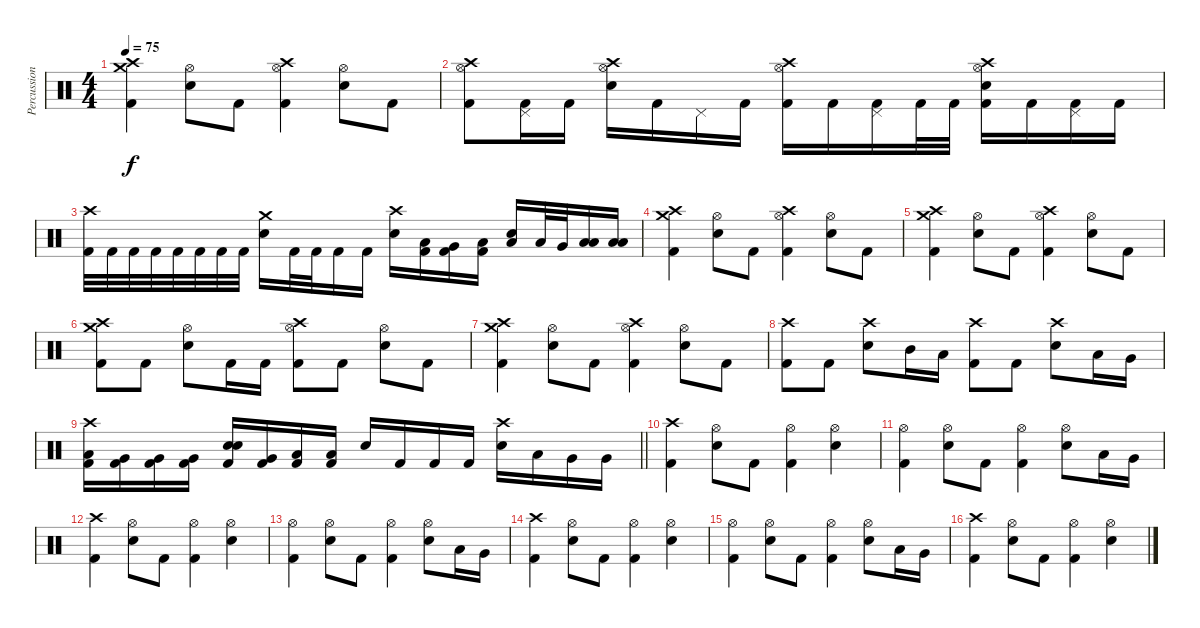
\track ("Percussions" "Percussion") {instrument percussion}
\staff {score}
\articulation defaults
\ts (4 4)
\tempo 75
\clef neutral
\ks c
("Crash medium (hit)" "Crash high (hit)" "Kick (hit) 2").4{dy f} ("Hi-Hat (open)" "Electric Snare (hit)").8 "Kick (hit) 2".8 ("Crash high (hit)" "Hi-Hat (open)" "Kick (hit) 2").4 ("Hi-Hat (open)" "Electric Snare (hit)").8 "Kick (hit) 2".8 |
("Crash high (hit)" "Hi-Hat (open)" "Kick (hit) 2").8 ("Pedal Hi-Hat (hit)" "Kick (hit) 2").16 "Kick (hit) 2".16 ("Crash high (hit)" "Hi-Hat (open)" "Electric Snare (hit)").16 "Kick (hit) 2".16 "Pedal Hi-Hat (hit)".16 "Kick (hit) 2".16 ("Crash high (hit)" "Hi-Hat (open)" "Kick (hit) 2").16 "Kick (hit) 2".16 ("Pedal Hi-Hat (hit)" "Kick (hit) 2").16 "Kick (hit) 2".32 "Kick (hit) 2".32 ("Crash high (hit)" "Hi-Hat (open)" "Electric Snare (hit)" "Kick (hit) 2").16 "Kick (hit) 2".16 ("Pedal Hi-Hat (hit)" "Kick (hit) 2").16 "Kick (hit) 2".16 |
("Crash high (hit)" "Kick (hit) 2").32 "Kick (hit) 2".32 "Kick (hit) 2".32 "Kick (hit) 2".32 "Kick (hit) 2".32 "Kick (hit) 2".32 "Kick (hit) 2".32 "Kick (hit) 2".32 ("Crash medium (hit)" "Electric Snare (hit)").16 "Kick (hit) 2".32 "Kick (hit) 2".32 "Kick (hit) 2".16 "Kick (hit) 2".16 ("Crash high (hit)" "Electric Snare (hit)").16 ("Low Tom (hit)" "Kick (hit) 2").16 ("Very Low Tom (hit)" "Kick (hit) 2").16 ("Low Floor Tom (hit)" "Kick (hit) 2").16 ("Electric Snare (hit)" "Low Tom (hit)").16 "Low Tom (hit)".32 "Very Low Tom (hit)".32 ("Low Floor Tom (hit)" "Low Floor Tom (hit)").16 ("Low Floor Tom (hit)" "Low Floor Tom (hit)").16 |
("Crash medium (hit)" "Crash high (hit)" "Kick (hit) 2").4 ("Hi-Hat (open)" "Electric Snare (hit)").8 "Kick (hit) 2".8 ("Crash high (hit)" "Hi-Hat (open)" "Kick (hit) 2").4 ("Hi-Hat (open)" "Electric Snare (hit)").8 "Kick (hit) 2".8 |
("Crash medium (hit)" "Crash high (hit)" "Kick (hit) 2").4 ("Hi-Hat (open)" "Electric Snare (hit)").8 "Kick (hit) 2".8 ("Crash high (hit)" "Hi-Hat (open)" "Kick (hit) 2").4 ("Hi-Hat (open)" "Electric Snare (hit)").8 "Kick (hit) 2".8 |
("Crash medium (hit)" "Crash high (hit)" "Kick (hit) 2").8 "Kick (hit) 2".8 ("Hi-Hat (open)" "Electric Snare (hit)").8 "Kick (hit) 2".16 "Kick (hit) 2".16 ("Crash high (hit)" "Hi-Hat (open)" "Kick (hit) 2").8 "Kick (hit) 2".8 ("Hi-Hat (open)" "Electric Snare (hit)").8 "Kick (hit) 2".8 |
("Crash medium (hit)" "Crash high (hit)" "Kick (hit) 2").4 ("Hi-Hat (open)" "Electric Snare (hit)").8 "Kick (hit) 2".8 ("Crash high (hit)" "Hi-Hat (open)" "Kick (hit) 2").4 ("Hi-Hat (open)" "Electric Snare (hit)").8 "Kick (hit) 2".8 |
("Crash high (hit)" "Kick (hit) 2").8 "Kick (hit) 2".8 ("Crash high (hit)" "Electric Snare (hit)").8 "Mid Tom (hit)".16 "Low Tom (hit)".16 ("Crash high (hit)" "Kick (hit) 2").8 "Kick (hit) 2".8 ("Crash high (hit)" "Electric Snare (hit)").8 "Low Tom (hit)".16 "Very Low Tom (hit)".16 |
\barLineRight lightlight
("Crash high (hit)" "Low Tom (hit)" "Kick (hit) 2").16 ("Very Low Tom (hit)" "Kick (hit) 2").16 ("Very Low Tom (hit)" "Kick (hit) 2").16 ("Very Low Tom (hit)" "Kick (hit) 2").16 ("Electric Snare (hit)" "Electric Snare (hit)" "Kick (hit) 2").16 ("Very Low Tom (hit)" "Kick (hit) 2").16 ("Low Floor Tom (hit)" "Kick (hit) 2").16 ("Low Floor Tom (hit)" "Kick (hit) 2").16 "Electric Snare (hit)".16 "Kick (hit) 2".16 "Kick (hit) 2".16 "Kick (hit) 2".16 ("Crash high (hit)" "Electric Snare (hit)").16 "Low Tom (hit)".16 "Very Low Tom (hit)".16 "Very Low Tom (hit)".16 |
("Crash high (hit)" "Kick (hit) 2").4 ("Hi-Hat (open)" "Electric Snare (hit)").8 "Kick (hit) 2".8 ("Hi-Hat (open)" "Kick (hit) 2").4 ("Hi-Hat (open)" "Electric Snare (hit)").4 |
("Hi-Hat (open)" "Kick (hit) 2").4 ("Hi-Hat (open)" "Electric Snare (hit)").8 "Kick (hit) 2".8 ("Hi-Hat (open)" "Kick (hit) 2").4 ("Hi-Hat (open)" "Electric Snare (hit)").8 "Low Tom (hit)".16 "Very Low Tom (hit)".16 |
("Crash high (hit)" "Kick (hit) 2").4 ("Hi-Hat (open)" "Electric Snare (hit)").8 "Kick (hit) 2".8 ("Hi-Hat (open)" "Kick (hit) 2").4 ("Hi-Hat (open)" "Electric Snare (hit)").4 |
("Hi-Hat (open)" "Kick (hit) 2").4 ("Hi-Hat (open)" "Electric Snare (hit)").8 "Kick (hit) 2".8 ("Hi-Hat (open)" "Kick (hit) 2").4 ("Hi-Hat (open)" "Electric Snare (hit)").8 "Low Tom (hit)".16 "Very Low Tom (hit)".16 |
("Crash high (hit)" "Kick (hit) 2").4 ("Hi-Hat (open)" "Electric Snare (hit)").8 "Kick (hit) 2".8 ("Hi-Hat (open)" "Kick (hit) 2").4 ("Hi-Hat (open)" "Electric Snare (hit)").4 |
("Hi-Hat (open)" "Kick (hit) 2").4 ("Hi-Hat (open)" "Electric Snare (hit)").8 "Kick (hit) 2".8 ("Hi-Hat (open)" "Kick (hit) 2").4 ("Hi-Hat (open)" "Electric Snare (hit)").8 "Low Tom (hit)".16 "Very Low Tom (hit)".16 |
("Crash high (hit)" "Kick (hit) 2").4 ("Hi-Hat (open)" "Electric Snare (hit)").8 "Kick (hit) 2".8 ("Hi-Hat (open)" "Kick (hit) 2").4 ("Hi-Hat (open)" "Electric Snare (hit)").4
